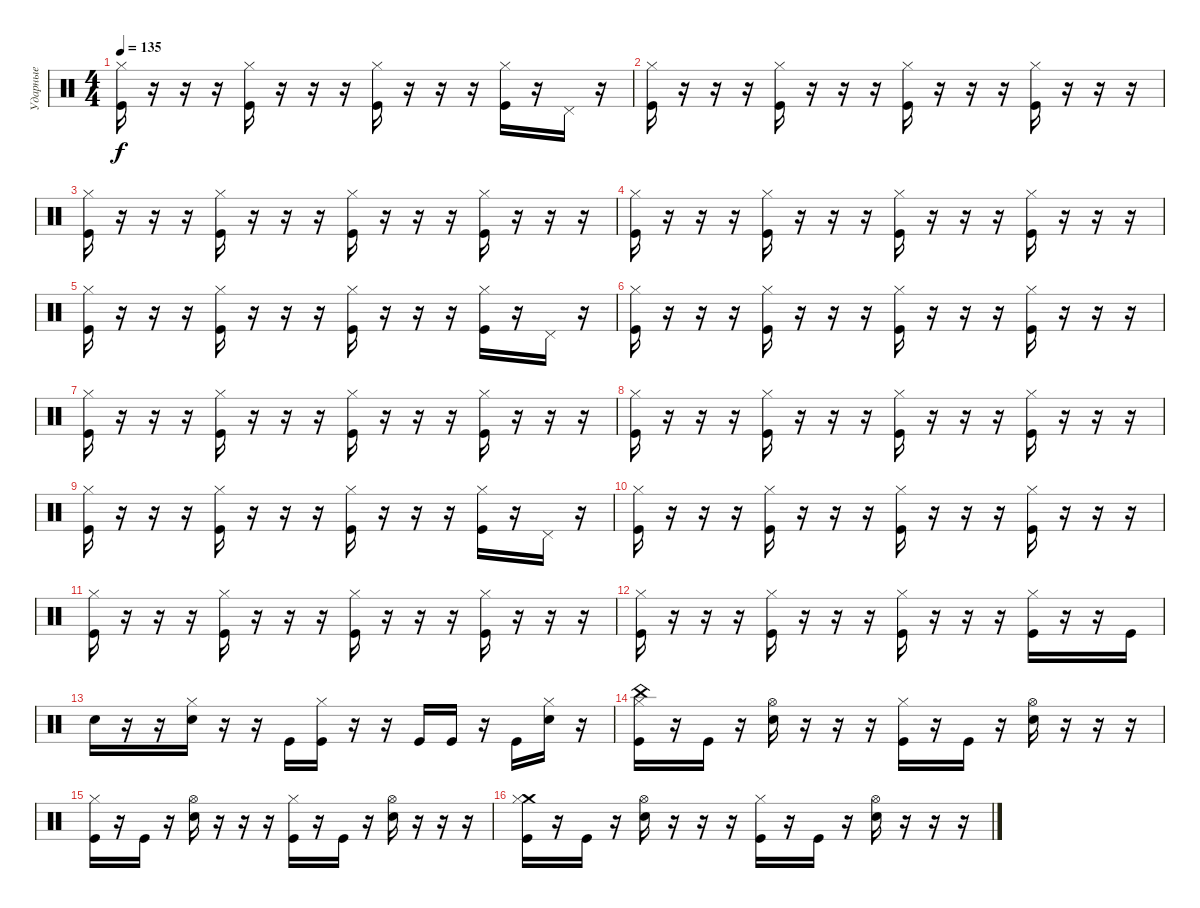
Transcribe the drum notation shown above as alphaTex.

\track ("Ударные" "Ударные") {instrument percussion}
\staff {score}
\articulation defaults
\ts (4 4)
\tempo 135
\clef neutral
\ks c
("Hi-Hat (closed)" "Kick (hit)").16{dy f} r.16 r.16 r.16 ("Hi-Hat (closed)" "Kick (hit)").16 r.16 r.16 r.16 ("Hi-Hat (closed)" "Kick (hit)").16 r.16 r.16 r.16 ("Hi-Hat (closed)" "Kick (hit)").16 r.16 "Pedal Hi-Hat (hit)".16 r.16 |
("Hi-Hat (closed)" "Kick (hit)").16 r.16 r.16 r.16 ("Hi-Hat (closed)" "Kick (hit)").16 r.16 r.16 r.16 ("Hi-Hat (closed)" "Kick (hit)").16 r.16 r.16 r.16 ("Hi-Hat (closed)" "Kick (hit)").16 r.16 r.16 r.16 |
("Hi-Hat (closed)" "Kick (hit)").16 r.16 r.16 r.16 ("Hi-Hat (closed)" "Kick (hit)").16 r.16 r.16 r.16 ("Hi-Hat (closed)" "Kick (hit)").16 r.16 r.16 r.16 ("Hi-Hat (closed)" "Kick (hit)").16 r.16 r.16 r.16 |
("Hi-Hat (closed)" "Kick (hit)").16 r.16 r.16 r.16 ("Hi-Hat (closed)" "Kick (hit)").16 r.16 r.16 r.16 ("Hi-Hat (closed)" "Kick (hit)").16 r.16 r.16 r.16 ("Hi-Hat (closed)" "Kick (hit)").16 r.16 r.16 r.16 |
("Hi-Hat (closed)" "Kick (hit)").16 r.16 r.16 r.16 ("Hi-Hat (closed)" "Kick (hit)").16 r.16 r.16 r.16 ("Hi-Hat (closed)" "Kick (hit)").16 r.16 r.16 r.16 ("Hi-Hat (closed)" "Kick (hit)").16 r.16 "Pedal Hi-Hat (hit)".16 r.16 |
("Hi-Hat (closed)" "Kick (hit)").16 r.16 r.16 r.16 ("Hi-Hat (closed)" "Kick (hit)").16 r.16 r.16 r.16 ("Hi-Hat (closed)" "Kick (hit)").16 r.16 r.16 r.16 ("Hi-Hat (closed)" "Kick (hit)").16 r.16 r.16 r.16 |
("Hi-Hat (closed)" "Kick (hit)").16 r.16 r.16 r.16 ("Hi-Hat (closed)" "Kick (hit)").16 r.16 r.16 r.16 ("Hi-Hat (closed)" "Kick (hit)").16 r.16 r.16 r.16 ("Hi-Hat (closed)" "Kick (hit)").16 r.16 r.16 r.16 |
("Hi-Hat (closed)" "Kick (hit)").16 r.16 r.16 r.16 ("Hi-Hat (closed)" "Kick (hit)").16 r.16 r.16 r.16 ("Hi-Hat (closed)" "Kick (hit)").16 r.16 r.16 r.16 ("Hi-Hat (closed)" "Kick (hit)").16 r.16 r.16 r.16 |
("Hi-Hat (closed)" "Kick (hit)").16 r.16 r.16 r.16 ("Hi-Hat (closed)" "Kick (hit)").16 r.16 r.16 r.16 ("Hi-Hat (closed)" "Kick (hit)").16 r.16 r.16 r.16 ("Hi-Hat (closed)" "Kick (hit)").16 r.16 "Pedal Hi-Hat (hit)".16 r.16 |
("Hi-Hat (closed)" "Kick (hit)").16 r.16 r.16 r.16 ("Hi-Hat (closed)" "Kick (hit)").16 r.16 r.16 r.16 ("Hi-Hat (closed)" "Kick (hit)").16 r.16 r.16 r.16 ("Hi-Hat (closed)" "Kick (hit)").16 r.16 r.16 r.16 |
("Hi-Hat (closed)" "Kick (hit)").16 r.16 r.16 r.16 ("Hi-Hat (closed)" "Kick (hit)").16 r.16 r.16 r.16 ("Hi-Hat (closed)" "Kick (hit)").16 r.16 r.16 r.16 ("Hi-Hat (closed)" "Kick (hit)").16 r.16 r.16 r.16 |
("Hi-Hat (closed)" "Kick (hit)").16 r.16 r.16 r.16 ("Hi-Hat (closed)" "Kick (hit)").16 r.16 r.16 r.16 ("Hi-Hat (closed)" "Kick (hit)").16 r.16 r.16 r.16 ("Hi-Hat (closed)" "Kick (hit)").16 r.16 r.16 "Kick (hit)".16 |
"Electric Snare (hit)".16 r.16 r.16 ("Hi-Hat (closed)" "Electric Snare (hit)").16 r.16 r.16 "Kick (hit)".16 ("Hi-Hat (closed)" "Kick (hit)").16 r.16 r.16 "Kick (hit)".16 "Kick (hit)".16 r.16 "Kick (hit)".16 ("Hi-Hat (closed)" "Electric Snare (hit)").16 r.16 |
("China (hit)" "Kick (hit)" "Hi-Hat (closed)").16 r.16 "Kick (hit)".16 r.16 ("Electric Snare (hit)" "Hi-Hat (open)").16 r.16 r.16 r.16 ("Kick (hit)" "Hi-Hat (closed)").16 r.16 "Kick (hit)".16 r.16 ("Electric Snare (hit)" "Hi-Hat (open)").16 r.16 r.16 r.16 |
("Kick (hit)" "Hi-Hat (closed)").16 r.16 "Kick (hit)".16 r.16 ("Electric Snare (hit)" "Hi-Hat (open)").16 r.16 r.16 r.16 ("Kick (hit)" "Hi-Hat (closed)").16 r.16 "Kick (hit)".16 r.16 ("Electric Snare (hit)" "Hi-Hat (open)").16 r.16 r.16 r.16 |
("Crash medium (hit)" "Kick (hit)" "Hi-Hat (closed)").16 r.16 "Kick (hit)".16 r.16 ("Electric Snare (hit)" "Hi-Hat (open)").16 r.16 r.16 r.16 ("Kick (hit)" "Hi-Hat (closed)").16 r.16 "Kick (hit)".16 r.16 ("Electric Snare (hit)" "Hi-Hat (open)").16 r.16 r.16 r.16
